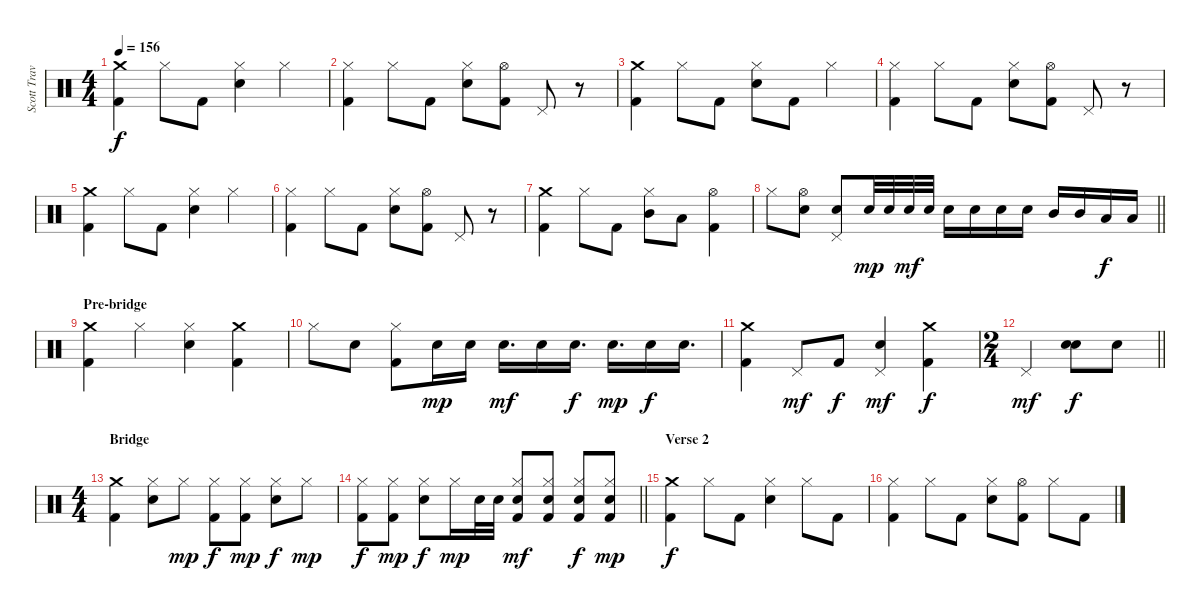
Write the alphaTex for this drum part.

\track ("Scott Travis" "Scott Trav") {instrument percussion}
\staff {score}
\articulation defaults
\ts (4 4)
\tempo 156
\clef neutral
\ks c
("Crash medium (hit)" "Kick (hit) 2").4{dy f} "Hi-Hat (closed)".8 "Kick (hit) 2".8 ("Hi-Hat (closed)" "Snare (hit) 2").4 "Hi-Hat (closed)".4 |
("Hi-Hat (closed)" "Kick (hit) 2").4 "Hi-Hat (closed)".8 "Kick (hit) 2".8 ("Hi-Hat (closed)" "Snare (hit) 2").8 ("Hi-Hat (open)" "Kick (hit) 2").8 "Pedal Hi-Hat (hit)".8 r.8 |
("Kick (hit) 2" "Crash medium (hit)").4 "Hi-Hat (closed)".8 "Kick (hit) 2".8 ("Snare (hit) 2" "Hi-Hat (closed)").8 "Kick (hit) 2".8 "Hi-Hat (closed)".4 |
("Kick (hit) 2" "Hi-Hat (closed)").4 "Hi-Hat (closed)".8 "Kick (hit) 2".8 ("Snare (hit) 2" "Hi-Hat (closed)").8 ("Kick (hit) 2" "Hi-Hat (open)").8 "Pedal Hi-Hat (hit)".8 r.8 |
("Crash medium (hit)" "Kick (hit) 2").4 "Hi-Hat (closed)".8 "Kick (hit) 2".8 ("Hi-Hat (closed)" "Snare (hit) 2").4 "Hi-Hat (closed)".4 |
("Hi-Hat (closed)" "Kick (hit) 2").4 "Hi-Hat (closed)".8 "Kick (hit) 2".8 ("Hi-Hat (closed)" "Snare (hit) 2").8 ("Hi-Hat (open)" "Kick (hit) 2").8 "Pedal Hi-Hat (hit)".8 r.8 |
("Crash medium (hit)" "Kick (hit) 2").4 "Hi-Hat (closed)".8 "Kick (hit) 2".8 ("Hi-Hat (closed)" "Mid Tom (hit)").8 "Low Tom (hit)".8 ("Kick (hit) 2" "Hi-Hat (open)").4 |
\barLineRight lightlight "Hi-Hat (closed)".8
("Hi-Hat (open)" "Snare (hit) 2").8 ("Pedal Hi-Hat (hit)" "Snare (hit) 2").8 "Snare (hit) 2".32{dy mp} "Snare (hit) 2".32 "Snare (hit) 2".32{dy mf} "Snare (hit) 2".32 "Snare (hit) 2".16 "Snare (hit) 2".16 "Snare (hit) 2".16 "Snare (hit) 2".16 "Mid Tom (hit)".16 "Mid Tom (hit)".16 "Low Tom (hit)".16{dy f} "Low Tom (hit)".16 |
\section ("" "Pre-bridge")
("Kick (hit) 2" "Crash medium (hit)").4 "Hi-Hat (closed)".4 ("Hi-Hat (closed)" "Snare (hit) 2").4 ("Crash medium (hit)" "Kick (hit) 2").4 |
"Hi-Hat (closed)".8 "Snare (hit) 2".8 ("Hi-Hat (closed)" "Kick (hit) 2").8 "Snare (hit) 2".16{dy mp} "Snare (hit) 2".16 "Snare (hit) 2".16{d dy mf} "Snare (hit) 2".16 "Snare (hit) 2".16{d dy f} "Snare (hit) 2".16{d dy mp} "Snare (hit) 2".16{dy f} "Snare (hit) 2".16{d} |
("Crash medium (hit)" "Kick (hit) 2").4 "Pedal Hi-Hat (hit)".8{dy mf} "Kick (hit) 2".8{dy f} ("Pedal Hi-Hat (hit)" "Snare (hit) 2").4{dy mf} ("Crash medium (hit)" "Kick (hit) 2").4{dy f} |
\ts (2 4)
\barLineRight lightlight "Pedal Hi-Hat (hit)".4{dy mf}
("Snare (hit) 2" "Snare (hit) 2").8{dy f} "Snare (hit) 2".8 |
\ts (4 4)
\section ("" "Bridge")
("Crash medium (hit)" "Kick (hit) 2").4 ("Hi-Hat (closed)" "Snare (hit) 2").8 "Hi-Hat (closed)".8{dy mp} ("Hi-Hat (closed)" "Kick (hit) 2").8{dy f} ("Hi-Hat (closed)" "Kick (hit) 2").8{dy mp} ("Hi-Hat (closed)" "Snare (hit) 2").8{dy f} "Hi-Hat (closed)".8{dy mp} |
\barLineRight lightlight
("Hi-Hat (closed)" "Kick (hit) 2").8{dy f} ("Hi-Hat (closed)" "Kick (hit) 2").8{dy mp} ("Snare (hit) 2" "Hi-Hat (closed)").8{dy f} "Hi-Hat (closed)".16{dy mp} "Snare (hit) 2".32 "Snare (hit) 2".32 ("Hi-Hat (closed)" "Snare (hit) 2" "Kick (hit) 2").8{dy mf} ("Hi-Hat (closed)" "Snare (hit) 2" "Kick (hit) 2").8 ("Hi-Hat (closed)" "Snare (hit) 2" "Kick (hit) 2").8{dy f} ("Hi-Hat (closed)" "Snare (hit) 2" "Kick (hit) 2").8{dy mp} |
\section ("" "Verse 2")
("Crash medium (hit)" "Kick (hit) 2").4{dy f} "Hi-Hat (closed)".8 "Kick (hit) 2".8 ("Hi-Hat (closed)" "Snare (hit) 2").4 "Hi-Hat (closed)".8 "Kick (hit) 2".8 |
("Hi-Hat (closed)" "Kick (hit) 2").4 "Hi-Hat (closed)".8 "Kick (hit) 2".8 ("Hi-Hat (closed)" "Snare (hit) 2").8 ("Hi-Hat (open)" "Kick (hit) 2").8 "Hi-Hat (closed)".8 "Kick (hit) 2".8
